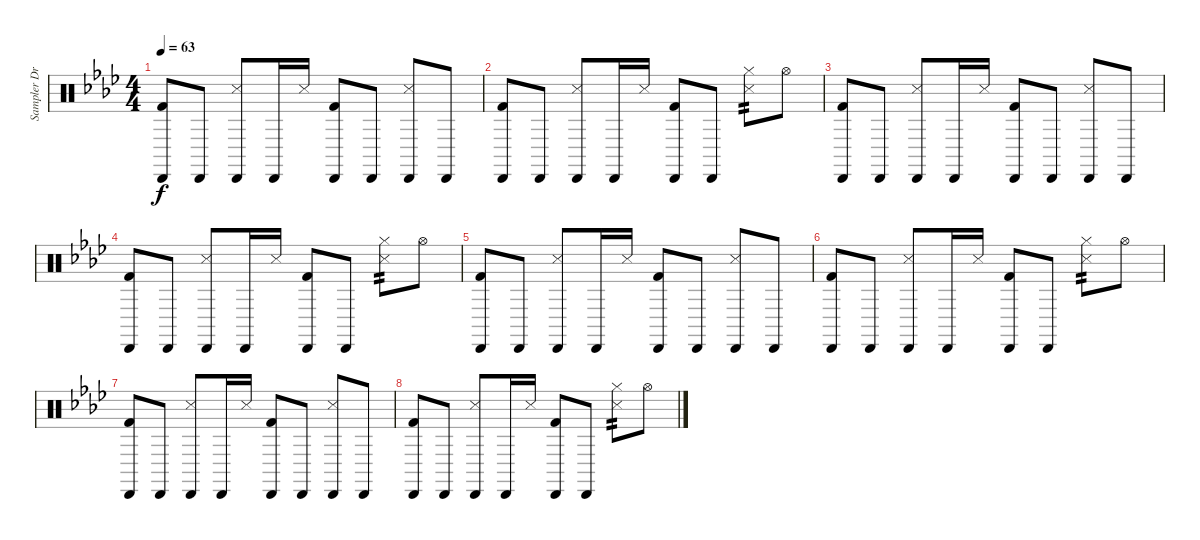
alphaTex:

\track ("Sampler Drums" "Sampler Dr") {instrument percussion}
\staff {score}
\articulation defaults
\ts (4 4)
\tempo 63
\clef neutral
\ks ab
("Cabasa (hit)" "Kick (hit) 2").8{dy f} "Cabasa (hit)".8 ("Cabasa (hit)" "Snare (side stick) 3").8 "Cabasa (hit)".16 "Snare (side stick) 3".16 ("Cabasa (hit)" "Kick (hit) 2").8 "Cabasa (hit)".8 ("Cabasa (hit)" "Snare (side stick) 3").8 "Cabasa (hit)".8 |
("Cabasa (hit)" "Kick (hit) 2").8 "Cabasa (hit)".8 ("Cabasa (hit)" "Snare (side stick) 3").8 "Cabasa (hit)".16 "Snare (side stick) 3".16 ("Cabasa (hit)" "Kick (hit) 2").8 "Cabasa (hit)".8 ("Hi-Hat (closed)" "Snare (side stick) 3").8{tp 2} "Hi-Hat (open)".8 |
("Cabasa (hit)" "Kick (hit) 2").8 "Cabasa (hit)".8 ("Cabasa (hit)" "Snare (side stick) 3").8 "Cabasa (hit)".16 "Snare (side stick) 3".16 ("Cabasa (hit)" "Kick (hit) 2").8 "Cabasa (hit)".8 ("Cabasa (hit)" "Snare (side stick) 3").8 "Cabasa (hit)".8 |
("Cabasa (hit)" "Kick (hit) 2").8 "Cabasa (hit)".8 ("Cabasa (hit)" "Snare (side stick) 3").8 "Cabasa (hit)".16 "Snare (side stick) 3".16 ("Cabasa (hit)" "Kick (hit) 2").8 "Cabasa (hit)".8 ("Hi-Hat (closed)" "Snare (side stick) 3").8{tp 2} "Hi-Hat (open)".8 |
("Cabasa (hit)" "Kick (hit) 2").8 "Cabasa (hit)".8 ("Cabasa (hit)" "Snare (side stick) 3").8 "Cabasa (hit)".16 "Snare (side stick) 3".16 ("Cabasa (hit)" "Kick (hit) 2").8 "Cabasa (hit)".8 ("Cabasa (hit)" "Snare (side stick) 3").8 "Cabasa (hit)".8 |
("Cabasa (hit)" "Kick (hit) 2").8 "Cabasa (hit)".8 ("Cabasa (hit)" "Snare (side stick) 3").8 "Cabasa (hit)".16 "Snare (side stick) 3".16 ("Cabasa (hit)" "Kick (hit) 2").8 "Cabasa (hit)".8 ("Hi-Hat (closed)" "Snare (side stick) 3").8{tp 2} "Hi-Hat (open)".8 |
("Cabasa (hit)" "Kick (hit) 2").8 "Cabasa (hit)".8 ("Cabasa (hit)" "Snare (side stick) 3").8 "Cabasa (hit)".16 "Snare (side stick) 3".16 ("Cabasa (hit)" "Kick (hit) 2").8 "Cabasa (hit)".8 ("Cabasa (hit)" "Snare (side stick) 3").8 "Cabasa (hit)".8 |
("Cabasa (hit)" "Kick (hit) 2").8 "Cabasa (hit)".8 ("Cabasa (hit)" "Snare (side stick) 3").8 "Cabasa (hit)".16 "Snare (side stick) 3".16 ("Cabasa (hit)" "Kick (hit) 2").8 "Cabasa (hit)".8 ("Hi-Hat (closed)" "Snare (side stick) 3").8{tp 2} "Hi-Hat (open)".8
